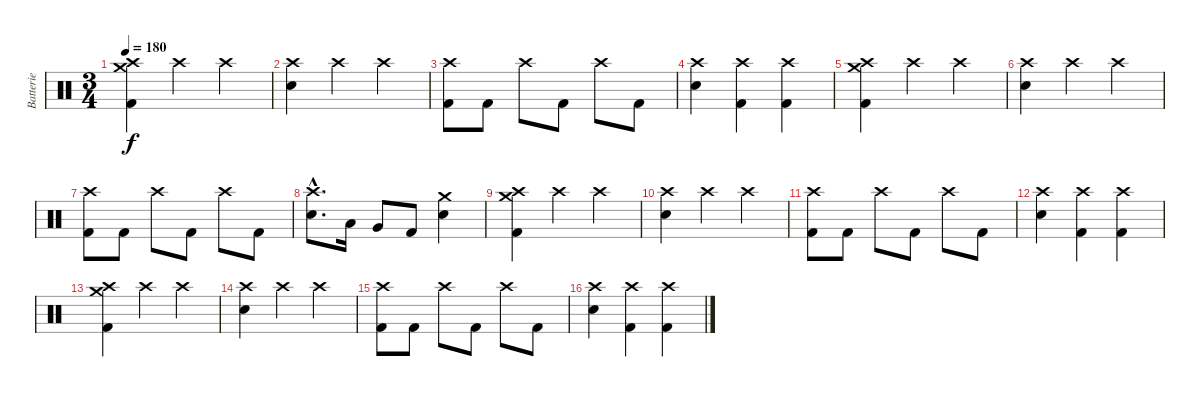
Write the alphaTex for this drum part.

\track ("Batterie" "Batterie") {instrument percussion}
\staff {score}
\articulation defaults
\ts (3 4)
\tempo 180
\clef neutral
\ks c
("Crash medium (hit)" "Crash high (hit)" "Kick (hit) 2").4{dy f} "Crash high (hit)".4 "Crash high (hit)".4 |
("Crash high (hit)" "Electric Snare (hit)").4 "Crash high (hit)".4 "Crash high (hit)".4 |
("Crash high (hit)" "Kick (hit) 2").8 "Kick (hit) 2".8 "Crash high (hit)".8 "Kick (hit) 2".8 "Crash high (hit)".8 "Kick (hit) 2".8 |
("Crash high (hit)" "Electric Snare (hit)").4 ("Crash high (hit)" "Kick (hit) 2").4 ("Crash high (hit)" "Kick (hit) 2").4 |
("Crash medium (hit)" "Crash high (hit)" "Kick (hit) 2").4 "Crash high (hit)".4 "Crash high (hit)".4 |
("Crash high (hit)" "Electric Snare (hit)").4 "Crash high (hit)".4 "Crash high (hit)".4 |
("Crash high (hit)" "Kick (hit) 2").8 "Kick (hit) 2".8 "Crash high (hit)".8 "Kick (hit) 2".8 "Crash high (hit)".8 "Kick (hit) 2".8 |
("Crash high (hit)"{hac} "Electric Snare (hit)"{hac}).8{d} "Low Tom (hit)".16 "Very Low Tom (hit)".8 "Kick (hit) 2".8 ("Crash medium (hit)" "Electric Snare (hit)").4 |
("Crash medium (hit)" "Crash high (hit)" "Kick (hit) 2").4 "Crash high (hit)".4 "Crash high (hit)".4 |
("Crash high (hit)" "Electric Snare (hit)").4 "Crash high (hit)".4 "Crash high (hit)".4 |
("Crash high (hit)" "Kick (hit) 2").8 "Kick (hit) 2".8 "Crash high (hit)".8 "Kick (hit) 2".8 "Crash high (hit)".8 "Kick (hit) 2".8 |
("Crash high (hit)" "Electric Snare (hit)").4 ("Crash high (hit)" "Kick (hit) 2").4 ("Crash high (hit)" "Kick (hit) 2").4 |
("Crash medium (hit)" "Crash high (hit)" "Kick (hit) 2").4 "Crash high (hit)".4 "Crash high (hit)".4 |
("Crash high (hit)" "Electric Snare (hit)").4 "Crash high (hit)".4 "Crash high (hit)".4 |
("Crash high (hit)" "Kick (hit) 2").8 "Kick (hit) 2".8 "Crash high (hit)".8 "Kick (hit) 2".8 "Crash high (hit)".8 "Kick (hit) 2".8 |
("Crash high (hit)" "Electric Snare (hit)").4 ("Crash high (hit)" "Kick (hit) 2").4 ("Crash high (hit)" "Kick (hit) 2").4
